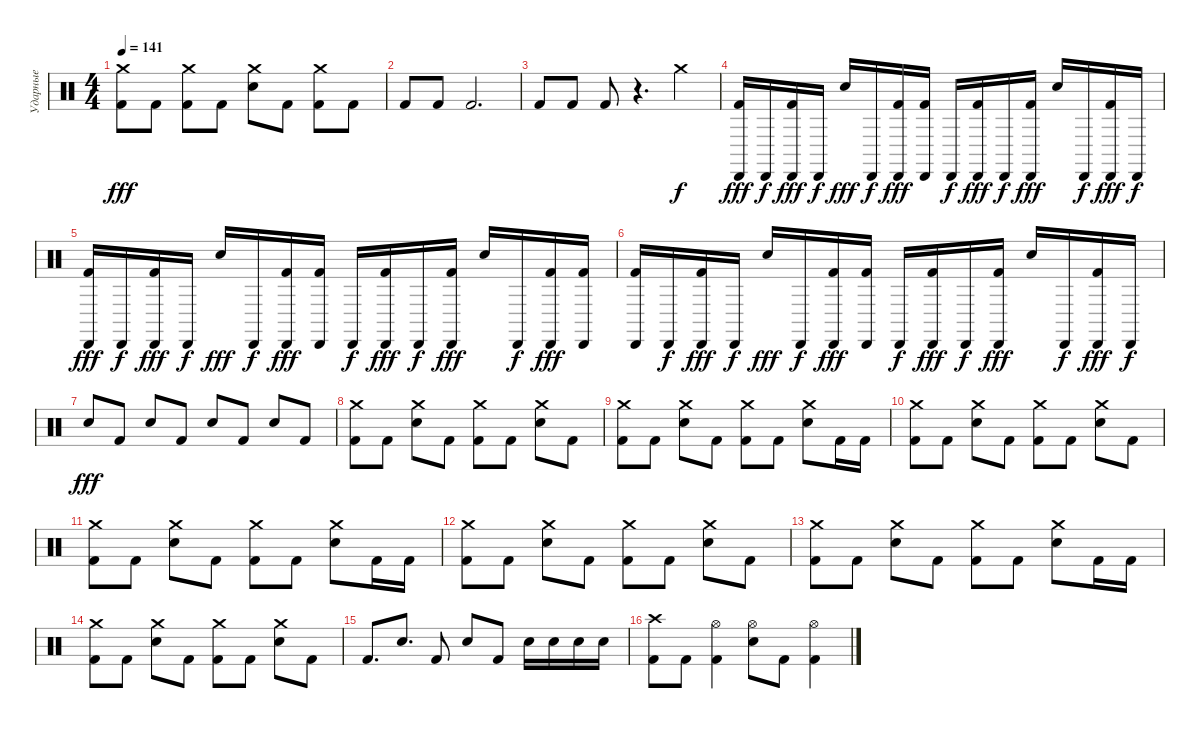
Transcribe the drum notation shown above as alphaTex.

\track ("Ударные" "Ударные") {instrument percussion}
\staff {score}
\articulation defaults
\ts (4 4)
\tempo 141
\clef neutral
\ks c
("Crash medium (hit)" "Kick (hit) 2").8{dy fff} "Kick (hit) 2".8 ("Crash medium (hit)" "Kick (hit) 2").8 "Kick (hit) 2".8 ("Crash medium (hit)" "Electric Snare (hit)").8 "Kick (hit) 2".8 ("Crash medium (hit)" "Kick (hit) 2").8 "Kick (hit) 2".8 |
"Kick (hit) 2".8 "Kick (hit) 2".8 "Kick (hit) 2".2{d} |
"Kick (hit) 2".8 "Kick (hit) 2".8 "Kick (hit) 2".8 r.4{d} "Crash medium (hit)".4{dy f} |
("Cabasa (hit)" "Kick (hit) 2").16{dy fff} "Cabasa (hit)".16{dy f} ("Cabasa (hit)" "Kick (hit) 2").16{dy fff} "Cabasa (hit)".16{dy f} "Electric Snare (hit)".16{dy fff} "Cabasa (hit)".16{dy f} ("Cabasa (hit)" "Kick (hit) 2").16{dy fff} ("Cabasa (hit)" "Kick (hit) 2").16 "Cabasa (hit)".16{dy f} ("Cabasa (hit)" "Kick (hit) 2").16{dy fff} "Cabasa (hit)".16{dy f} ("Cabasa (hit)" "Kick (hit) 2").16{dy fff} "Electric Snare (hit)".16 "Cabasa (hit)".16{dy f} ("Cabasa (hit)" "Kick (hit) 2").16{dy fff} "Cabasa (hit)".16{dy f} |
("Cabasa (hit)" "Kick (hit) 2").16{dy fff} "Cabasa (hit)".16{dy f} ("Cabasa (hit)" "Kick (hit) 2").16{dy fff} "Cabasa (hit)".16{dy f} "Electric Snare (hit)".16{dy fff} "Cabasa (hit)".16{dy f} ("Cabasa (hit)" "Kick (hit) 2").16{dy fff} ("Cabasa (hit)" "Kick (hit) 2").16 "Cabasa (hit)".16{dy f} ("Cabasa (hit)" "Kick (hit) 2").16{dy fff} "Cabasa (hit)".16{dy f} ("Cabasa (hit)" "Kick (hit) 2").16{dy fff} "Electric Snare (hit)".16 "Cabasa (hit)".16{dy f} ("Cabasa (hit)" "Kick (hit) 2").16{dy fff} ("Cabasa (hit)" "Kick (hit) 2").16 |
("Cabasa (hit)" "Kick (hit) 2").16 "Cabasa (hit)".16{dy f} ("Cabasa (hit)" "Kick (hit) 2").16{dy fff} "Cabasa (hit)".16{dy f} "Electric Snare (hit)".16{dy fff} "Cabasa (hit)".16{dy f} ("Cabasa (hit)" "Kick (hit) 2").16{dy fff} ("Cabasa (hit)" "Kick (hit) 2").16 "Cabasa (hit)".16{dy f} ("Cabasa (hit)" "Kick (hit) 2").16{dy fff} "Cabasa (hit)".16{dy f} ("Cabasa (hit)" "Kick (hit) 2").16{dy fff} "Electric Snare (hit)".16 "Cabasa (hit)".16{dy f} ("Cabasa (hit)" "Kick (hit) 2").16{dy fff} "Cabasa (hit)".16{dy f} |
"Electric Snare (hit)".8{dy fff} "Kick (hit) 2".8 "Electric Snare (hit)".8 "Kick (hit) 2".8 "Electric Snare (hit)".8 "Kick (hit) 2".8 "Electric Snare (hit)".8 "Kick (hit) 2".8 |
("Crash medium (hit)" "Kick (hit) 2").8 "Kick (hit) 2".8 ("Crash medium (hit)" "Electric Snare (hit)").8 "Kick (hit) 2".8 ("Crash medium (hit)" "Kick (hit) 2").8 "Kick (hit) 2".8 ("Crash medium (hit)" "Electric Snare (hit)").8 "Kick (hit) 2".8 |
("Crash medium (hit)" "Kick (hit) 2").8 "Kick (hit) 2".8 ("Crash medium (hit)" "Electric Snare (hit)").8 "Kick (hit) 2".8 ("Crash medium (hit)" "Kick (hit) 2").8 "Kick (hit) 2".8 ("Crash medium (hit)" "Electric Snare (hit)").8 "Kick (hit) 2".16 "Kick (hit) 2".16 |
("Crash medium (hit)" "Kick (hit) 2").8 "Kick (hit) 2".8 ("Crash medium (hit)" "Electric Snare (hit)").8 "Kick (hit) 2".8 ("Crash medium (hit)" "Kick (hit) 2").8 "Kick (hit) 2".8 ("Crash medium (hit)" "Electric Snare (hit)").8 "Kick (hit) 2".8 |
("Crash medium (hit)" "Kick (hit) 2").8 "Kick (hit) 2".8 ("Crash medium (hit)" "Electric Snare (hit)").8 "Kick (hit) 2".8 ("Crash medium (hit)" "Kick (hit) 2").8 "Kick (hit) 2".8 ("Crash medium (hit)" "Electric Snare (hit)").8 "Kick (hit) 2".16 "Kick (hit) 2".16 |
("Crash medium (hit)" "Kick (hit) 2").8 "Kick (hit) 2".8 ("Crash medium (hit)" "Electric Snare (hit)").8 "Kick (hit) 2".8 ("Crash medium (hit)" "Kick (hit) 2").8 "Kick (hit) 2".8 ("Crash medium (hit)" "Electric Snare (hit)").8 "Kick (hit) 2".8 |
("Crash medium (hit)" "Kick (hit) 2").8 "Kick (hit) 2".8 ("Crash medium (hit)" "Electric Snare (hit)").8 "Kick (hit) 2".8 ("Crash medium (hit)" "Kick (hit) 2").8 "Kick (hit) 2".8 ("Crash medium (hit)" "Electric Snare (hit)").8 "Kick (hit) 2".16 "Kick (hit) 2".16 |
("Crash medium (hit)" "Kick (hit) 2").8 "Kick (hit) 2".8 ("Crash medium (hit)" "Electric Snare (hit)").8 "Kick (hit) 2".8 ("Crash medium (hit)" "Kick (hit) 2").8 "Kick (hit) 2".8 ("Crash medium (hit)" "Electric Snare (hit)").8 "Kick (hit) 2".8 |
"Kick (hit) 2".8{d} "Electric Snare (hit)".8{d} "Kick (hit) 2".8 "Electric Snare (hit)".8 "Kick (hit) 2".8 "Electric Snare (hit)".16 "Electric Snare (hit)".16 "Electric Snare (hit)".16 "Electric Snare (hit)".16 |
("Crash high (hit)" "Kick (hit) 2").8 "Kick (hit) 2".8 ("Hi-Hat (open)" "Kick (hit) 2").4 ("Hi-Hat (open)" "Electric Snare (hit)").8 "Kick (hit) 2".8 ("Hi-Hat (open)" "Kick (hit) 2").4
